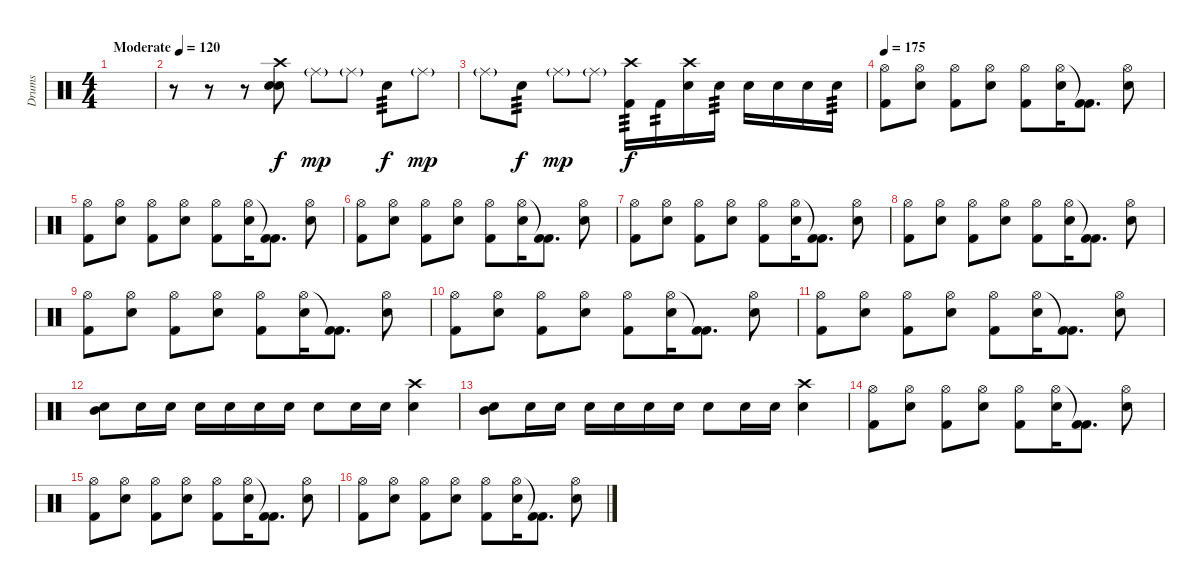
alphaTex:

\track ("Drums" "Drums") {instrument percussion}
\staff {score}
\articulation defaults
\ts (4 4)
\tempo (120 "Moderate")
\clef neutral
\ks c
|
r.8 r.8 r.8 ("Snare (hit) 2" "Electric Snare (hit)" "Crash high (hit)").8 "Ride (middle)"{g}.8{dy mp} "Ride (middle)"{g}.8 "Electric Snare (hit)".8{tp 3 dy f} "Ride (middle)"{g}.8{dy mp} |
"Ride (middle)"{g}.8 "Electric Snare (hit)".8{tp 3 dy f} "Ride (middle)"{g}.8{dy mp} "Ride (middle)"{g}.8 ("Crash high (hit)" "Kick (hit) 2").16{tp 3 dy f} "Kick (hit) 2".16{tp 2} ("Crash high (hit)" "Electric Snare (hit)").16 "Electric Snare (hit)".16{tp 3} "Electric Snare (hit)".16 "Electric Snare (hit)".16 "Electric Snare (hit)".16 "Electric Snare (hit)".16{tp 3} |
\tempo 175
("Hi-Hat (open)" "Kick (hit) 2").8 ("Hi-Hat (open)" "Electric Snare (hit)").8 ("Hi-Hat (open)" "Kick (hit) 2").8 ("Hi-Hat (open)" "Electric Snare (hit)").8 ("Hi-Hat (open)" "Kick (hit) 2").8 ("Hi-Hat (open)" "Electric Snare (hit)").16 ("Kick (hit) 2"{t} "Kick (hit) 2").8{d} ("Hi-Hat (open)" "Electric Snare (hit)").8 |
("Hi-Hat (open)" "Kick (hit) 2").8 ("Hi-Hat (open)" "Electric Snare (hit)").8 ("Hi-Hat (open)" "Kick (hit) 2").8 ("Hi-Hat (open)" "Electric Snare (hit)").8 ("Hi-Hat (open)" "Kick (hit) 2").8 ("Hi-Hat (open)" "Electric Snare (hit)").16 ("Kick (hit) 2"{t} "Kick (hit) 2").8{d} ("Hi-Hat (open)" "Electric Snare (hit)").8 |
("Hi-Hat (open)" "Kick (hit) 2").8 ("Hi-Hat (open)" "Electric Snare (hit)").8 ("Hi-Hat (open)" "Kick (hit) 2").8 ("Hi-Hat (open)" "Electric Snare (hit)").8 ("Hi-Hat (open)" "Kick (hit) 2").8 ("Hi-Hat (open)" "Electric Snare (hit)").16 ("Kick (hit) 2"{t} "Kick (hit) 2").8{d} ("Hi-Hat (open)" "Electric Snare (hit)").8 |
("Hi-Hat (open)" "Kick (hit) 2").8 ("Hi-Hat (open)" "Electric Snare (hit)").8 ("Hi-Hat (open)" "Kick (hit) 2").8 ("Hi-Hat (open)" "Electric Snare (hit)").8 ("Hi-Hat (open)" "Kick (hit) 2").8 ("Hi-Hat (open)" "Electric Snare (hit)").16 ("Kick (hit) 2"{t} "Kick (hit) 2").8{d} ("Hi-Hat (open)" "Electric Snare (hit)").8 |
("Hi-Hat (open)" "Kick (hit) 2").8 ("Hi-Hat (open)" "Electric Snare (hit)").8 ("Hi-Hat (open)" "Kick (hit) 2").8 ("Hi-Hat (open)" "Electric Snare (hit)").8 ("Hi-Hat (open)" "Kick (hit) 2").8 ("Hi-Hat (open)" "Electric Snare (hit)").16 ("Kick (hit) 2"{t} "Kick (hit) 2").8{d} ("Hi-Hat (open)" "Electric Snare (hit)").8 |
("Hi-Hat (open)" "Kick (hit) 2").8 ("Hi-Hat (open)" "Electric Snare (hit)").8 ("Hi-Hat (open)" "Kick (hit) 2").8 ("Hi-Hat (open)" "Electric Snare (hit)").8 ("Hi-Hat (open)" "Kick (hit) 2").8 ("Hi-Hat (open)" "Electric Snare (hit)").16 ("Kick (hit) 2"{t} "Kick (hit) 2").8{d} ("Hi-Hat (open)" "Electric Snare (hit)").8 |
("Hi-Hat (open)" "Kick (hit) 2").8 ("Hi-Hat (open)" "Electric Snare (hit)").8 ("Hi-Hat (open)" "Kick (hit) 2").8 ("Hi-Hat (open)" "Electric Snare (hit)").8 ("Hi-Hat (open)" "Kick (hit) 2").8 ("Hi-Hat (open)" "Electric Snare (hit)").16 ("Kick (hit) 2"{t} "Kick (hit) 2").8{d} ("Hi-Hat (open)" "Electric Snare (hit)").8 |
("Hi-Hat (open)" "Kick (hit) 2").8 ("Hi-Hat (open)" "Electric Snare (hit)").8 ("Hi-Hat (open)" "Kick (hit) 2").8 ("Hi-Hat (open)" "Electric Snare (hit)").8 ("Hi-Hat (open)" "Kick (hit) 2").8 ("Hi-Hat (open)" "Electric Snare (hit)").16 ("Kick (hit) 2"{t} "Kick (hit) 2").8{d} ("Hi-Hat (open)" "Electric Snare (hit)").8 |
("Mid Tom (hit)" "Electric Snare (hit)").8 "Electric Snare (hit)".16 "Electric Snare (hit)".16 "Electric Snare (hit)".16 "Electric Snare (hit)".16 "Electric Snare (hit)".16 "Electric Snare (hit)".16 "Electric Snare (hit)".8 "Electric Snare (hit)".16 "Electric Snare (hit)".16 ("Crash high (hit)" "Electric Snare (hit)").4 |
("Mid Tom (hit)" "Electric Snare (hit)").8 "Electric Snare (hit)".16 "Electric Snare (hit)".16 "Electric Snare (hit)".16 "Electric Snare (hit)".16 "Electric Snare (hit)".16 "Electric Snare (hit)".16 "Electric Snare (hit)".8 "Electric Snare (hit)".16 "Electric Snare (hit)".16 ("Crash high (hit)" "Electric Snare (hit)").4 |
("Hi-Hat (open)" "Kick (hit) 2").8 ("Hi-Hat (open)" "Electric Snare (hit)").8 ("Hi-Hat (open)" "Kick (hit) 2").8 ("Hi-Hat (open)" "Electric Snare (hit)").8 ("Hi-Hat (open)" "Kick (hit) 2").8 ("Hi-Hat (open)" "Electric Snare (hit)").16 ("Kick (hit) 2"{t} "Kick (hit) 2").8{d} ("Hi-Hat (open)" "Electric Snare (hit)").8 |
("Hi-Hat (open)" "Kick (hit) 2").8 ("Hi-Hat (open)" "Electric Snare (hit)").8 ("Hi-Hat (open)" "Kick (hit) 2").8 ("Hi-Hat (open)" "Electric Snare (hit)").8 ("Hi-Hat (open)" "Kick (hit) 2").8 ("Hi-Hat (open)" "Electric Snare (hit)").16 ("Kick (hit) 2"{t} "Kick (hit) 2").8{d} ("Hi-Hat (open)" "Electric Snare (hit)").8 |
("Hi-Hat (open)" "Kick (hit) 2").8 ("Hi-Hat (open)" "Electric Snare (hit)").8 ("Hi-Hat (open)" "Kick (hit) 2").8 ("Hi-Hat (open)" "Electric Snare (hit)").8 ("Hi-Hat (open)" "Kick (hit) 2").8 ("Hi-Hat (open)" "Electric Snare (hit)").16 ("Kick (hit) 2"{t} "Kick (hit) 2").8{d} ("Hi-Hat (open)" "Electric Snare (hit)").8
